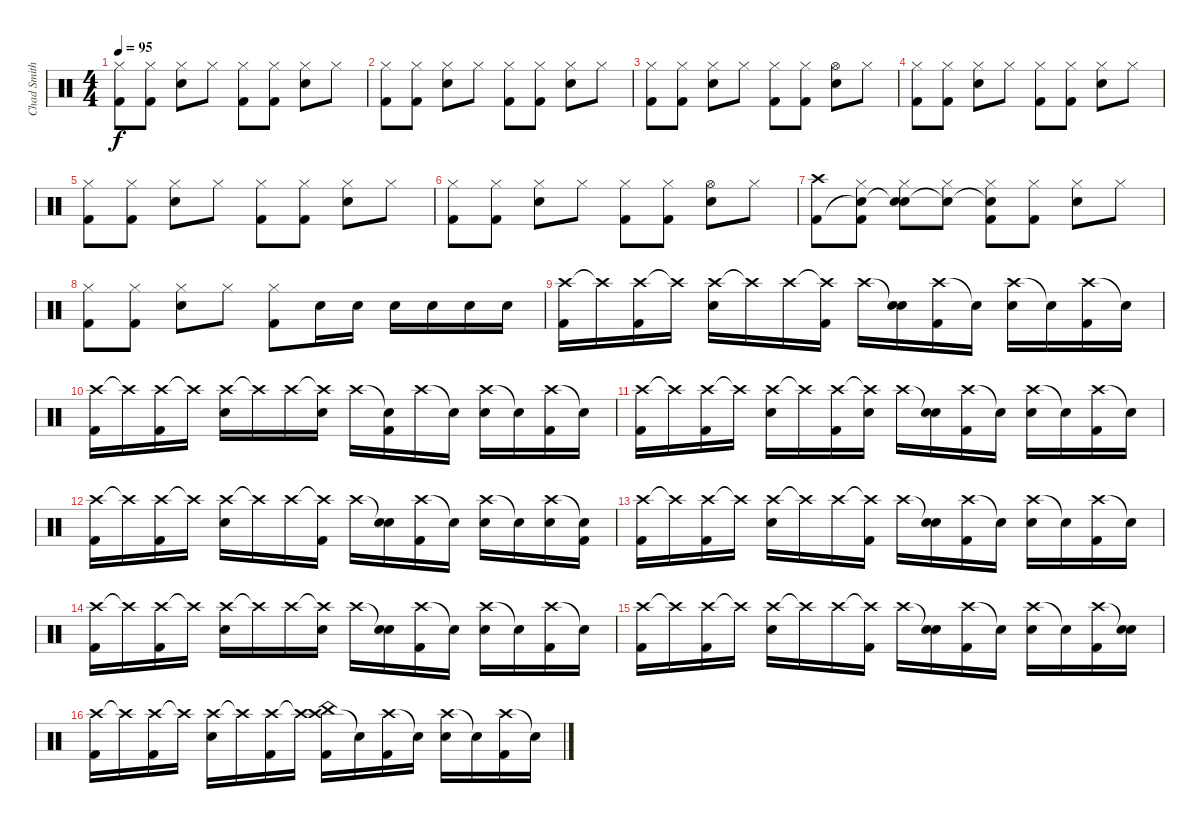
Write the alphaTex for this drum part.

\track ("Chad Smith" "Chad Smith") {instrument percussion}
\staff {score}
\articulation defaults
\ts (4 4)
\tempo 95
\clef neutral
\ks c
("Hi-Hat (closed)" "Kick (hit) 2").8{dy f} ("Hi-Hat (closed)" "Kick (hit) 2").8 ("Hi-Hat (closed)" "Snare (hit) 2").8 "Hi-Hat (closed)".8 ("Hi-Hat (closed)" "Kick (hit) 2").8 ("Hi-Hat (closed)" "Kick (hit) 2").8 ("Hi-Hat (closed)" "Snare (hit) 2").8 "Hi-Hat (closed)".8 |
("Hi-Hat (closed)" "Kick (hit) 2").8 ("Hi-Hat (closed)" "Kick (hit) 2").8 ("Hi-Hat (closed)" "Snare (hit) 2").8 "Hi-Hat (closed)".8 ("Hi-Hat (closed)" "Kick (hit) 2").8 ("Hi-Hat (closed)" "Kick (hit) 2").8 ("Hi-Hat (closed)" "Snare (hit) 2").8 "Hi-Hat (closed)".8 |
("Hi-Hat (closed)" "Kick (hit) 2").8 ("Hi-Hat (closed)" "Kick (hit) 2").8 ("Hi-Hat (closed)" "Snare (hit) 2").8 "Hi-Hat (closed)".8 ("Hi-Hat (closed)" "Kick (hit) 2").8 ("Hi-Hat (closed)" "Kick (hit) 2").8 ("Hi-Hat (open)" "Snare (hit) 2").8 "Hi-Hat (closed)".8 |
("Hi-Hat (closed)" "Kick (hit) 2").8 ("Hi-Hat (closed)" "Kick (hit) 2").8 ("Hi-Hat (closed)" "Snare (hit) 2").8 "Hi-Hat (closed)".8 ("Hi-Hat (closed)" "Kick (hit) 2").8 ("Hi-Hat (closed)" "Kick (hit) 2").8 ("Hi-Hat (closed)" "Snare (hit) 2").8 "Hi-Hat (closed)".8 |
("Hi-Hat (closed)" "Kick (hit) 2").8 ("Hi-Hat (closed)" "Kick (hit) 2").8 ("Hi-Hat (closed)" "Snare (hit) 2").8 "Hi-Hat (closed)".8 ("Hi-Hat (closed)" "Kick (hit) 2").8 ("Hi-Hat (closed)" "Kick (hit) 2").8 ("Hi-Hat (closed)" "Snare (hit) 2").8 "Hi-Hat (closed)".8 |
("Hi-Hat (closed)" "Kick (hit) 2").8 ("Hi-Hat (closed)" "Kick (hit) 2").8 ("Hi-Hat (closed)" "Snare (hit) 2").8 "Hi-Hat (closed)".8 ("Hi-Hat (closed)" "Kick (hit) 2").8 ("Hi-Hat (closed)" "Kick (hit) 2").8 ("Hi-Hat (open)" "Snare (hit) 2").8 "Hi-Hat (closed)".8 |
("Crash high (hit)" "Kick (hit) 2").8 ("Hi-Hat (closed)" "Snare (hit)"{t} "Kick (hit) 2").8 ("Hi-Hat (closed)" "Snare (hit)"{t} "Snare (hit) 2").8 ("Hi-Hat (closed)" "Snare (hit)"{t}).8 ("Hi-Hat (closed)" "Snare (hit)"{t} "Kick (hit) 2").8 ("Hi-Hat (closed)" "Kick (hit) 2").8 ("Hi-Hat (closed)" "Snare (hit) 2").8 "Hi-Hat (closed)".8 |
("Hi-Hat (closed)" "Kick (hit) 2").8 ("Hi-Hat (closed)" "Kick (hit) 2").8 ("Hi-Hat (closed)" "Snare (hit) 2").8 "Hi-Hat (closed)".8 ("Hi-Hat (closed)" "Kick (hit) 2").8 "Snare (hit) 2".16 "Snare (hit) 2".16 "Snare (hit) 2".16 "Snare (hit) 2".16 "Snare (hit) 2".16 "Snare (hit) 2".16 |
("Crash high (hit)" "Kick (hit) 2").16 "Crash high (hit)"{t}.16 ("Crash high (hit)" "Kick (hit) 2").16 "Crash high (hit)"{t}.16 ("Crash high (hit)" "Snare (hit) 2").16 "Crash high (hit)"{t}.16 "Crash high (hit)".16 ("Crash high (hit)"{t} "Kick (hit) 2").16 "Crash high (hit)".16 ("Snare (hit)"{t} "Snare (hit) 2").16 ("Crash high (hit)" "Kick (hit) 2").16 "Snare (hit)"{t}.16 ("Crash high (hit)" "Snare (hit) 2").16 "Snare (hit)"{t}.16 ("Crash high (hit)" "Kick (hit) 2").16 "Snare (hit)"{t}.16 |
("Crash high (hit)" "Kick (hit) 2").16 "Crash high (hit)"{t}.16 ("Crash high (hit)" "Kick (hit) 2").16 "Crash high (hit)"{t}.16 ("Crash high (hit)" "Snare (hit) 2").16 "Crash high (hit)"{t}.16 "Crash high (hit)".16 ("Crash high (hit)"{t} "Snare (hit) 2").16 "Crash high (hit)".16 ("Snare (hit)"{t} "Kick (hit) 2").16 "Crash high (hit)".16 "Snare (hit)"{t}.16 ("Crash high (hit)" "Snare (hit) 2").16 "Snare (hit)"{t}.16 ("Crash high (hit)" "Kick (hit) 2").16 "Snare (hit)"{t}.16 |
("Crash high (hit)" "Kick (hit) 2").16 "Crash high (hit)"{t}.16 ("Crash high (hit)" "Kick (hit) 2").16 "Crash high (hit)"{t}.16 ("Crash high (hit)" "Snare (hit) 2").16 "Crash high (hit)"{t}.16 ("Crash high (hit)" "Kick (hit) 2").16 ("Crash high (hit)"{t} "Snare (hit) 2").16 "Crash high (hit)".16 ("Snare (hit)"{t} "Snare (hit) 2").16 ("Crash high (hit)" "Kick (hit) 2").16 "Snare (hit)"{t}.16 ("Crash high (hit)" "Snare (hit) 2").16 "Snare (hit)"{t}.16 ("Crash high (hit)" "Kick (hit) 2").16 "Snare (hit)"{t}.16 |
("Crash high (hit)" "Kick (hit) 2").16 "Crash high (hit)"{t}.16 ("Crash high (hit)" "Kick (hit) 2").16 "Crash high (hit)"{t}.16 ("Crash high (hit)" "Snare (hit) 2").16 "Crash high (hit)"{t}.16 "Crash high (hit)".16 ("Crash high (hit)"{t} "Kick (hit) 2").16 "Crash high (hit)".16 ("Snare (hit)"{t} "Snare (hit) 2").16 ("Crash high (hit)" "Kick (hit) 2").16 "Snare (hit)"{t}.16 ("Crash high (hit)" "Snare (hit) 2").16 "Snare (hit)"{t}.16 ("Crash high (hit)" "Snare (hit) 2").16 ("Snare (hit)"{t} "Kick (hit) 2").16 |
("Crash high (hit)" "Kick (hit) 2").16 "Crash high (hit)"{t}.16 ("Crash high (hit)" "Kick (hit) 2").16 "Crash high (hit)"{t}.16 ("Crash high (hit)" "Snare (hit) 2").16 "Crash high (hit)"{t}.16 "Crash high (hit)".16 ("Crash high (hit)"{t} "Kick (hit) 2").16 "Crash high (hit)".16 ("Snare (hit)"{t} "Snare (hit) 2").16 ("Crash high (hit)" "Kick (hit) 2").16 "Snare (hit)"{t}.16 ("Crash high (hit)" "Snare (hit) 2").16 "Snare (hit)"{t}.16 ("Crash high (hit)" "Kick (hit) 2").16 "Snare (hit)"{t}.16 |
("Crash high (hit)" "Kick (hit) 2").16 "Crash high (hit)"{t}.16 ("Crash high (hit)" "Kick (hit) 2").16 "Crash high (hit)"{t}.16 ("Crash high (hit)" "Snare (hit) 2").16 "Crash high (hit)"{t}.16 "Crash high (hit)".16 ("Crash high (hit)"{t} "Snare (hit) 2").16 "Crash high (hit)".16 ("Snare (hit)"{t} "Snare (hit) 2").16 ("Crash high (hit)" "Kick (hit) 2").16 "Snare (hit)"{t}.16 ("Crash high (hit)" "Snare (hit) 2").16 "Snare (hit)"{t}.16 ("Crash high (hit)" "Kick (hit) 2").16 "Snare (hit)"{t}.16 |
("Crash high (hit)" "Kick (hit) 2").16 "Crash high (hit)"{t}.16 ("Crash high (hit)" "Kick (hit) 2").16 "Crash high (hit)"{t}.16 ("Crash high (hit)" "Snare (hit) 2").16 "Crash high (hit)"{t}.16 "Crash high (hit)".16 ("Crash high (hit)"{t} "Kick (hit) 2").16 "Crash high (hit)".16 ("Snare (hit)"{t} "Snare (hit) 2").16 ("Crash high (hit)" "Kick (hit) 2").16 "Snare (hit)"{t}.16 ("Crash high (hit)" "Snare (hit) 2").16 "Snare (hit)"{t}.16 ("Crash high (hit)" "Kick (hit) 2").16 ("Snare (hit)"{t} "Snare (hit) 2").16 |
("Crash high (hit)" "Kick (hit) 2").16 "Crash high (hit)"{t}.16 ("Crash high (hit)" "Kick (hit) 2").16 "Crash high (hit)"{t}.16 ("Crash high (hit)" "Snare (hit) 2").16 "Crash high (hit)"{t}.16 ("Crash high (hit)" "Kick (hit) 2").16 "Crash high (hit)"{t}.16 ("Crash high (hit)" "China (hit)" "Kick (hit) 2").16 "Snare (hit)"{t}.16 ("Crash high (hit)" "Kick (hit) 2").16 "Snare (hit)"{t}.16 ("Crash high (hit)" "Snare (hit) 2").16 "Snare (hit)"{t}.16 ("Crash high (hit)" "Kick (hit) 2").16 "Snare (hit)"{t}.16
